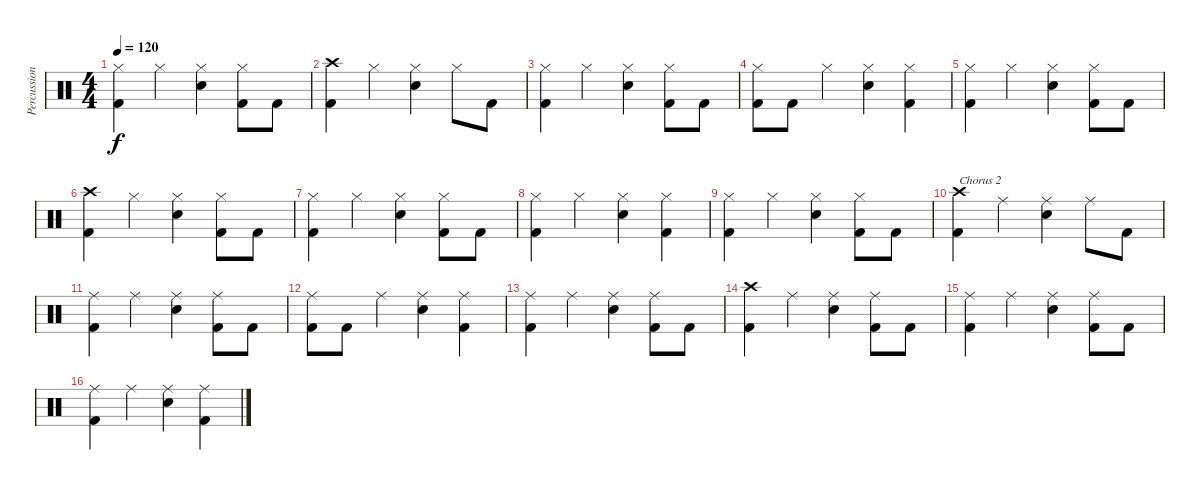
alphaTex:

\track ("Percussion" "Percussion") {instrument percussion}
\staff {score}
\articulation defaults
\ts (4 4)
\tempo 120
\clef neutral
\ks c
("Kick (hit) 2" "Hi-Hat (closed)").4{dy f} "Hi-Hat (closed)".4 ("Snare (hit) 2" "Hi-Hat (closed)").4 ("Kick (hit) 2" "Hi-Hat (closed)").8 "Kick (hit) 2".8 |
("Kick (hit) 2" "Crash high (hit)").4 "Hi-Hat (closed)".4 ("Snare (hit) 2" "Hi-Hat (closed)").4 "Hi-Hat (closed)".8 "Kick (hit) 2".8 |
("Kick (hit) 2" "Hi-Hat (closed)").4 "Hi-Hat (closed)".4 ("Snare (hit) 2" "Hi-Hat (closed)").4 ("Kick (hit) 2" "Hi-Hat (closed)").8 "Kick (hit) 2".8 |
("Kick (hit) 2" "Hi-Hat (closed)").8 "Kick (hit) 2".8 "Hi-Hat (closed)".4 ("Snare (hit) 2" "Hi-Hat (closed)").4 ("Kick (hit) 2" "Hi-Hat (closed)").4 |
("Kick (hit) 2" "Hi-Hat (closed)").4 "Hi-Hat (closed)".4 ("Snare (hit) 2" "Hi-Hat (closed)").4 ("Kick (hit) 2" "Hi-Hat (closed)").8 "Kick (hit) 2".8 |
("Kick (hit) 2" "Crash high (hit)").4 "Hi-Hat (closed)".4 ("Snare (hit) 2" "Hi-Hat (closed)").4 ("Kick (hit) 2" "Hi-Hat (closed)").8 "Kick (hit) 2".8 |
("Kick (hit) 2" "Hi-Hat (closed)").4 "Hi-Hat (closed)".4 ("Snare (hit) 2" "Hi-Hat (closed)").4 ("Kick (hit) 2" "Hi-Hat (closed)").8 "Kick (hit) 2".8 |
("Kick (hit) 2" "Hi-Hat (closed)").4 "Hi-Hat (closed)".4 ("Snare (hit) 2" "Hi-Hat (closed)").4 ("Kick (hit) 2" "Hi-Hat (closed)").4 |
("Kick (hit) 2" "Hi-Hat (closed)").4 "Hi-Hat (closed)".4 ("Snare (hit) 2" "Hi-Hat (closed)").4 ("Kick (hit) 2" "Hi-Hat (closed)").8 "Kick (hit) 2".8 |
("Kick (hit) 2" "Crash high (hit)").4{txt "Chorus 2"} "Ride (middle)".4 ("Snare (hit) 2" "Ride (middle)").4 "Ride (middle)".8 "Kick (hit) 2".8 |
("Kick (hit) 2" "Ride (middle)").4 "Ride (middle)".4 ("Snare (hit) 2" "Ride (middle)").4 ("Kick (hit) 2" "Ride (middle)").8 "Kick (hit) 2".8 |
("Kick (hit) 2" "Ride (middle)").8 "Kick (hit) 2".8 "Ride (middle)".4 ("Snare (hit) 2" "Ride (middle)").4 ("Kick (hit) 2" "Ride (middle)").4 |
("Kick (hit) 2" "Ride (middle)").4 "Ride (middle)".4 ("Snare (hit) 2" "Ride (middle)").4 ("Kick (hit) 2" "Ride (middle)").8 "Kick (hit) 2".8 |
("Kick (hit) 2" "Crash high (hit)").4 "Ride (middle)".4 ("Snare (hit) 2" "Ride (middle)").4 ("Kick (hit) 2" "Ride (middle)").8 "Kick (hit) 2".8 |
("Kick (hit) 2" "Ride (middle)").4 "Ride (middle)".4 ("Snare (hit) 2" "Ride (middle)").4 ("Kick (hit) 2" "Ride (middle)").8 "Kick (hit) 2".8 |
("Kick (hit) 2" "Ride (middle)").4 "Ride (middle)".4 ("Snare (hit) 2" "Ride (middle)").4 ("Kick (hit) 2" "Ride (middle)").4
